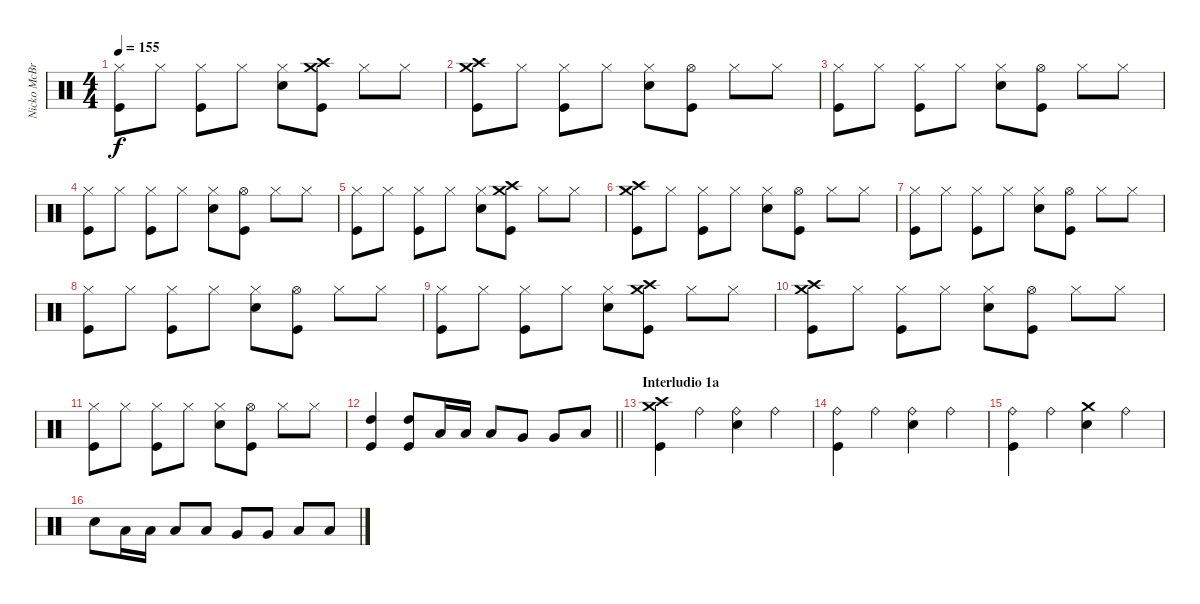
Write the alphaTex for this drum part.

\track ("Nicko McBrain" "Nicko McBr") {instrument percussion}
\staff {score}
\articulation defaults
\ts (4 4)
\tempo 155
\clef neutral
\ks c
("Hi-Hat (closed)" "Kick (hit)").8{dy f} "Hi-Hat (closed)".8 ("Hi-Hat (closed)" "Kick (hit)").8 "Hi-Hat (closed)".8 ("Hi-Hat (closed)" "Snare (hit) 2").8 ("Crash medium (hit)" "Crash high (hit)" "Kick (hit)").8 "Hi-Hat (closed)".8 "Hi-Hat (closed)".8 |
("Crash medium (hit)" "Crash high (hit)" "Kick (hit)").8 "Hi-Hat (closed)".8 ("Hi-Hat (closed)" "Kick (hit)").8 "Hi-Hat (closed)".8 ("Hi-Hat (closed)" "Snare (hit) 2").8 ("Hi-Hat (open)" "Kick (hit)").8 "Hi-Hat (closed)".8 "Hi-Hat (closed)".8 |
("Hi-Hat (closed)" "Kick (hit)").8 "Hi-Hat (closed)".8 ("Hi-Hat (closed)" "Kick (hit)").8 "Hi-Hat (closed)".8 ("Hi-Hat (closed)" "Snare (hit) 2").8 ("Hi-Hat (open)" "Kick (hit)").8 "Hi-Hat (closed)".8 "Hi-Hat (closed)".8 |
("Hi-Hat (closed)" "Kick (hit)").8 "Hi-Hat (closed)".8 ("Hi-Hat (closed)" "Kick (hit)").8 "Hi-Hat (closed)".8 ("Hi-Hat (closed)" "Snare (hit) 2").8 ("Hi-Hat (open)" "Kick (hit)").8 "Hi-Hat (closed)".8 "Hi-Hat (closed)".8 |
("Hi-Hat (closed)" "Kick (hit)").8 "Hi-Hat (closed)".8 ("Hi-Hat (closed)" "Kick (hit)").8 "Hi-Hat (closed)".8 ("Hi-Hat (closed)" "Snare (hit) 2").8 ("Crash medium (hit)" "Crash high (hit)" "Kick (hit)").8 "Hi-Hat (closed)".8 "Hi-Hat (closed)".8 |
("Crash medium (hit)" "Crash high (hit)" "Kick (hit)").8 "Hi-Hat (closed)".8 ("Hi-Hat (closed)" "Kick (hit)").8 "Hi-Hat (closed)".8 ("Hi-Hat (closed)" "Snare (hit) 2").8 ("Hi-Hat (open)" "Kick (hit)").8 "Hi-Hat (closed)".8 "Hi-Hat (closed)".8 |
("Hi-Hat (closed)" "Kick (hit)").8 "Hi-Hat (closed)".8 ("Hi-Hat (closed)" "Kick (hit)").8 "Hi-Hat (closed)".8 ("Hi-Hat (closed)" "Snare (hit) 2").8 ("Hi-Hat (open)" "Kick (hit)").8 "Hi-Hat (closed)".8 "Hi-Hat (closed)".8 |
("Hi-Hat (closed)" "Kick (hit)").8 "Hi-Hat (closed)".8 ("Hi-Hat (closed)" "Kick (hit)").8 "Hi-Hat (closed)".8 ("Hi-Hat (closed)" "Snare (hit) 2").8 ("Hi-Hat (open)" "Kick (hit)").8 "Hi-Hat (closed)".8 "Hi-Hat (closed)".8 |
("Hi-Hat (closed)" "Kick (hit)").8 "Hi-Hat (closed)".8 ("Hi-Hat (closed)" "Kick (hit)").8 "Hi-Hat (closed)".8 ("Hi-Hat (closed)" "Snare (hit) 2").8 ("Crash medium (hit)" "Crash high (hit)" "Kick (hit)").8 "Hi-Hat (closed)".8 "Hi-Hat (closed)".8 |
("Crash medium (hit)" "Crash high (hit)" "Kick (hit)").8 "Hi-Hat (closed)".8 ("Hi-Hat (closed)" "Kick (hit)").8 "Hi-Hat (closed)".8 ("Hi-Hat (closed)" "Snare (hit) 2").8 ("Hi-Hat (open)" "Kick (hit)").8 "Hi-Hat (closed)".8 "Hi-Hat (closed)".8 |
("Hi-Hat (closed)" "Kick (hit)").8 "Hi-Hat (closed)".8 ("Hi-Hat (closed)" "Kick (hit)").8 "Hi-Hat (closed)".8 ("Hi-Hat (closed)" "Snare (hit) 2").8 ("Hi-Hat (open)" "Kick (hit)").8 "Hi-Hat (closed)".8 "Hi-Hat (closed)".8 |
\barLineRight lightlight
("High Tom (hit)" "Kick (hit)").4 ("High Tom (hit)" "Kick (hit)").8 "Low Tom (hit)".16 "Low Tom (hit)".16 "Low Tom (hit)".8 "Very Low Tom (hit)".8 "Very Low Tom (hit)".8 "Low Floor Tom (hit)".8 |
\section ("" "Interludio 1a")
("Crash medium (hit)" "Crash high (hit)" "Kick (hit)").4 "Ride (bell)".4 ("Ride (bell)" "Snare (hit) 2").4 "Ride (bell)".4 |
("Ride (bell)" "Kick (hit)").4 "Ride (bell)".4 ("Ride (bell)" "Snare (hit) 2").4 "Ride (bell)".4 |
("Ride (bell)" "Kick (hit)").4 "Ride (bell)".4 ("Crash medium (hit)" "Snare (hit) 2").4 "Ride (bell)".4 |
"Snare (hit) 2".8 "Low Tom (hit)".16 "Low Tom (hit)".16 "Low Tom (hit)".8 "Low Tom (hit)".8 "Very Low Tom (hit)".8 "Very Low Tom (hit)".8 "Low Floor Tom (hit)".8 "Low Floor Tom (hit)".8
